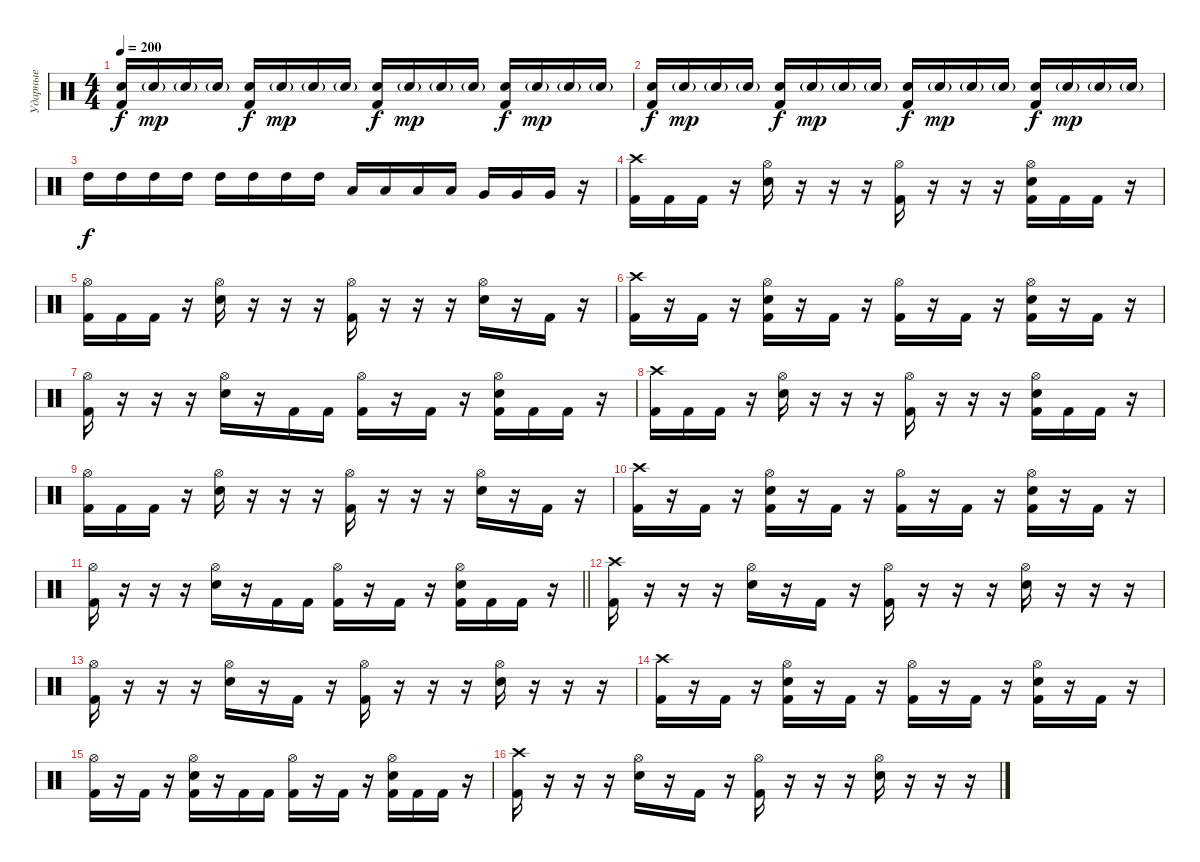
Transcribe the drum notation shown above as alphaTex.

\track ("Ударные" "Ударные") {instrument percussion}
\staff {score}
\articulation defaults
\ts (4 4)
\tempo 200
\clef neutral
\ks c
("Electric Snare (hit)" "Kick (hit) 2").16{dy f} "Electric Snare (hit)"{g}.16{dy mp} "Electric Snare (hit)"{g}.16 "Electric Snare (hit)"{g}.16 ("Electric Snare (hit)" "Kick (hit) 2").16{dy f} "Electric Snare (hit)"{g}.16{dy mp} "Electric Snare (hit)"{g}.16 "Electric Snare (hit)"{g}.16 ("Electric Snare (hit)" "Kick (hit) 2").16{dy f} "Electric Snare (hit)"{g}.16{dy mp} "Electric Snare (hit)"{g}.16 "Electric Snare (hit)"{g}.16 ("Electric Snare (hit)" "Kick (hit) 2").16{dy f} "Electric Snare (hit)"{g}.16{dy mp} "Electric Snare (hit)"{g}.16 "Electric Snare (hit)"{g}.16 |
("Electric Snare (hit)" "Kick (hit) 2").16{dy f} "Electric Snare (hit)"{g}.16{dy mp} "Electric Snare (hit)"{g}.16 "Electric Snare (hit)"{g}.16 ("Electric Snare (hit)" "Kick (hit) 2").16{dy f} "Electric Snare (hit)"{g}.16{dy mp} "Electric Snare (hit)"{g}.16 "Electric Snare (hit)"{g}.16 ("Electric Snare (hit)" "Kick (hit) 2").16{dy f} "Electric Snare (hit)"{g}.16{dy mp} "Electric Snare (hit)"{g}.16 "Electric Snare (hit)"{g}.16 ("Electric Snare (hit)" "Kick (hit) 2").16{dy f} "Electric Snare (hit)"{g}.16{dy mp} "Electric Snare (hit)"{g}.16 "Electric Snare (hit)"{g}.16 |
"High Tom (hit)".16{dy f} "High Tom (hit)".16 "High Tom (hit)".16 "High Tom (hit)".16 "High Tom (hit)".16 "High Tom (hit)".16 "High Tom (hit)".16 "High Tom (hit)".16 "Low Tom (hit)".16 "Low Tom (hit)".16 "Low Tom (hit)".16 "Low Tom (hit)".16 "Very Low Tom (hit)".16 "Very Low Tom (hit)".16 "Very Low Tom (hit)".16 r.16 |
("Crash high (hit)" "Kick (hit) 2").16 "Kick (hit) 2".16 "Kick (hit) 2".16 r.16 ("Hi-Hat (open)" "Electric Snare (hit)").16 r.16 r.16 r.16 ("Hi-Hat (open)" "Kick (hit) 2").16 r.16 r.16 r.16 ("Hi-Hat (open)" "Electric Snare (hit)" "Kick (hit) 2").16 "Kick (hit) 2".16 "Kick (hit) 2".16 r.16 |
("Hi-Hat (open)" "Kick (hit) 2").16 "Kick (hit) 2".16 "Kick (hit) 2".16 r.16 ("Hi-Hat (open)" "Electric Snare (hit)").16 r.16 r.16 r.16 ("Hi-Hat (open)" "Kick (hit) 2").16 r.16 r.16 r.16 ("Hi-Hat (open)" "Electric Snare (hit)").16 r.16 "Kick (hit) 2".16 r.16 |
("Crash high (hit)" "Kick (hit) 2").16 r.16 "Kick (hit) 2".16 r.16 ("Hi-Hat (open)" "Electric Snare (hit)" "Kick (hit) 2").16 r.16 "Kick (hit) 2".16 r.16 ("Hi-Hat (open)" "Kick (hit) 2").16 r.16 "Kick (hit) 2".16 r.16 ("Hi-Hat (open)" "Electric Snare (hit)" "Kick (hit) 2").16 r.16 "Kick (hit) 2".16 r.16 |
("Hi-Hat (open)" "Kick (hit) 2").16 r.16 r.16 r.16 ("Hi-Hat (open)" "Electric Snare (hit)").16 r.16 "Kick (hit) 2".16 "Kick (hit) 2".16 ("Hi-Hat (open)" "Kick (hit) 2").16 r.16 "Kick (hit) 2".16 r.16 ("Hi-Hat (open)" "Electric Snare (hit)" "Kick (hit) 2").16 "Kick (hit) 2".16 "Kick (hit) 2".16 r.16 |
("Crash high (hit)" "Kick (hit) 2").16 "Kick (hit) 2".16 "Kick (hit) 2".16 r.16 ("Hi-Hat (open)" "Electric Snare (hit)").16 r.16 r.16 r.16 ("Hi-Hat (open)" "Kick (hit) 2").16 r.16 r.16 r.16 ("Hi-Hat (open)" "Electric Snare (hit)" "Kick (hit) 2").16 "Kick (hit) 2".16 "Kick (hit) 2".16 r.16 |
("Hi-Hat (open)" "Kick (hit) 2").16 "Kick (hit) 2".16 "Kick (hit) 2".16 r.16 ("Hi-Hat (open)" "Electric Snare (hit)").16 r.16 r.16 r.16 ("Hi-Hat (open)" "Kick (hit) 2").16 r.16 r.16 r.16 ("Hi-Hat (open)" "Electric Snare (hit)").16 r.16 "Kick (hit) 2".16 r.16 |
("Crash high (hit)" "Kick (hit) 2").16 r.16 "Kick (hit) 2".16 r.16 ("Hi-Hat (open)" "Electric Snare (hit)" "Kick (hit) 2").16 r.16 "Kick (hit) 2".16 r.16 ("Hi-Hat (open)" "Kick (hit) 2").16 r.16 "Kick (hit) 2".16 r.16 ("Hi-Hat (open)" "Electric Snare (hit)" "Kick (hit) 2").16 r.16 "Kick (hit) 2".16 r.16 |
\barLineRight lightlight
("Hi-Hat (open)" "Kick (hit) 2").16 r.16 r.16 r.16 ("Hi-Hat (open)" "Electric Snare (hit)").16 r.16 "Kick (hit) 2".16 "Kick (hit) 2".16 ("Hi-Hat (open)" "Kick (hit) 2").16 r.16 "Kick (hit) 2".16 r.16 ("Hi-Hat (open)" "Electric Snare (hit)" "Kick (hit) 2").16 "Kick (hit) 2".16 "Kick (hit) 2".16 r.16 |
("Crash high (hit)" "Kick (hit) 2").16 r.16 r.16 r.16 ("Hi-Hat (open)" "Electric Snare (hit)").16 r.16 "Kick (hit) 2".16 r.16 ("Hi-Hat (open)" "Kick (hit) 2").16 r.16 r.16 r.16 ("Hi-Hat (open)" "Electric Snare (hit)").16 r.16 r.16 r.16 |
("Hi-Hat (open)" "Kick (hit) 2").16 r.16 r.16 r.16 ("Hi-Hat (open)" "Electric Snare (hit)").16 r.16 "Kick (hit) 2".16 r.16 ("Hi-Hat (open)" "Kick (hit) 2").16 r.16 r.16 r.16 ("Hi-Hat (open)" "Electric Snare (hit)").16 r.16 r.16 r.16 |
("Crash high (hit)" "Kick (hit) 2").16 r.16 "Kick (hit) 2".16 r.16 ("Hi-Hat (open)" "Electric Snare (hit)" "Kick (hit) 2").16 r.16 "Kick (hit) 2".16 r.16 ("Hi-Hat (open)" "Kick (hit) 2").16 r.16 "Kick (hit) 2".16 r.16 ("Hi-Hat (open)" "Electric Snare (hit)" "Kick (hit) 2").16 r.16 "Kick (hit) 2".16 r.16 |
("Hi-Hat (open)" "Kick (hit) 2").16 r.16 "Kick (hit) 2".16 r.16 ("Hi-Hat (open)" "Electric Snare (hit)" "Kick (hit) 2").16 r.16 "Kick (hit) 2".16 "Kick (hit) 2".16 ("Hi-Hat (open)" "Kick (hit) 2").16 r.16 "Kick (hit) 2".16 r.16 ("Hi-Hat (open)" "Electric Snare (hit)" "Kick (hit) 2").16 "Kick (hit) 2".16 "Kick (hit) 2".16 r.16 |
("Crash high (hit)" "Kick (hit) 2").16 r.16 r.16 r.16 ("Hi-Hat (open)" "Electric Snare (hit)").16 r.16 "Kick (hit) 2".16 r.16 ("Hi-Hat (open)" "Kick (hit) 2").16 r.16 r.16 r.16 ("Hi-Hat (open)" "Electric Snare (hit)").16 r.16 r.16 r.16
